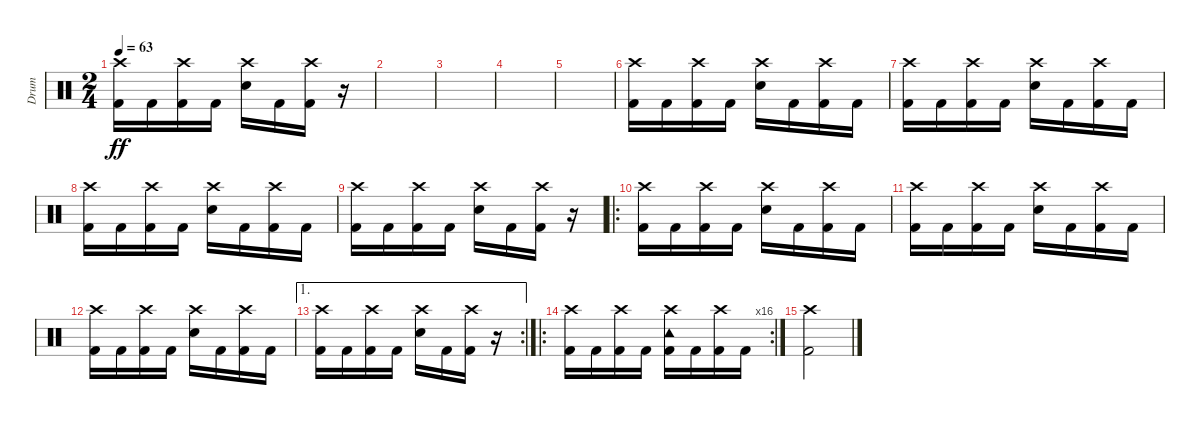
\track ("Drum" "Drum") {instrument percussion}
\staff {score}
\articulation defaults
\ts (2 4)
\tempo 63
\clef neutral
\ks c
("Kick (hit) 2" "Crash high (hit)").16{dy ff} "Kick (hit) 2".16 ("Kick (hit) 2" "Crash high (hit)").16 "Kick (hit) 2".16 ("Snare (hit) 2" "Crash high (hit)").16 "Kick (hit) 2".16 ("Kick (hit) 2" "Crash high (hit)").16 r.16 |
|
|
|
|
("Kick (hit) 2" "Crash high (hit)").16 "Kick (hit) 2".16 ("Kick (hit) 2" "Crash high (hit)").16 "Kick (hit) 2".16 ("Snare (hit) 2" "Crash high (hit)").16 "Kick (hit) 2".16 ("Kick (hit) 2" "Crash high (hit)").16 "Kick (hit) 2".16 |
("Kick (hit) 2" "Crash high (hit)").16 "Kick (hit) 2".16 ("Kick (hit) 2" "Crash high (hit)").16 "Kick (hit) 2".16 ("Snare (hit) 2" "Crash high (hit)").16 "Kick (hit) 2".16 ("Kick (hit) 2" "Crash high (hit)").16 "Kick (hit) 2".16 |
("Kick (hit) 2" "Crash high (hit)").16 "Kick (hit) 2".16 ("Kick (hit) 2" "Crash high (hit)").16 "Kick (hit) 2".16 ("Snare (hit) 2" "Crash high (hit)").16 "Kick (hit) 2".16 ("Kick (hit) 2" "Crash high (hit)").16 "Kick (hit) 2".16 |
("Kick (hit) 2" "Crash high (hit)").16 "Kick (hit) 2".16 ("Kick (hit) 2" "Crash high (hit)").16 "Kick (hit) 2".16 ("Snare (hit) 2" "Crash high (hit)").16 "Kick (hit) 2".16 ("Kick (hit) 2" "Crash high (hit)").16 r.16 |
\ro
("Kick (hit) 2" "Crash high (hit)").16 "Kick (hit) 2".16 ("Kick (hit) 2" "Crash high (hit)").16 "Kick (hit) 2".16 ("Snare (hit) 2" "Crash high (hit)").16 "Kick (hit) 2".16 ("Kick (hit) 2" "Crash high (hit)").16 "Kick (hit) 2".16 |
("Kick (hit) 2" "Crash high (hit)").16 "Kick (hit) 2".16 ("Kick (hit) 2" "Crash high (hit)").16 "Kick (hit) 2".16 ("Snare (hit) 2" "Crash high (hit)").16 "Kick (hit) 2".16 ("Kick (hit) 2" "Crash high (hit)").16 "Kick (hit) 2".16 |
("Kick (hit) 2" "Crash high (hit)").16 "Kick (hit) 2".16 ("Kick (hit) 2" "Crash high (hit)").16 "Kick (hit) 2".16 ("Snare (hit) 2" "Crash high (hit)").16 "Kick (hit) 2".16 ("Kick (hit) 2" "Crash high (hit)").16 "Kick (hit) 2".16 |
\ae 1
\rc 2
("Kick (hit) 2" "Crash high (hit)").16 "Kick (hit) 2".16 ("Kick (hit) 2" "Crash high (hit)").16 "Kick (hit) 2".16 ("Snare (hit) 2" "Crash high (hit)").16 "Kick (hit) 2".16 ("Kick (hit) 2" "Crash high (hit)").16 r.16 |
\ro
\rc 16
("Kick (hit) 2" "Crash high (hit)").16 "Kick (hit) 2".16 ("Kick (hit) 2" "Crash high (hit)").16 "Kick (hit) 2".16 ("Kick (hit) 2" "Tambourine (hit)" "Crash high (hit)").16 "Kick (hit) 2".16 ("Kick (hit) 2" "Crash high (hit)").16 "Kick (hit) 2".16 |
("Kick (hit) 2" "Crash high (hit)").2
